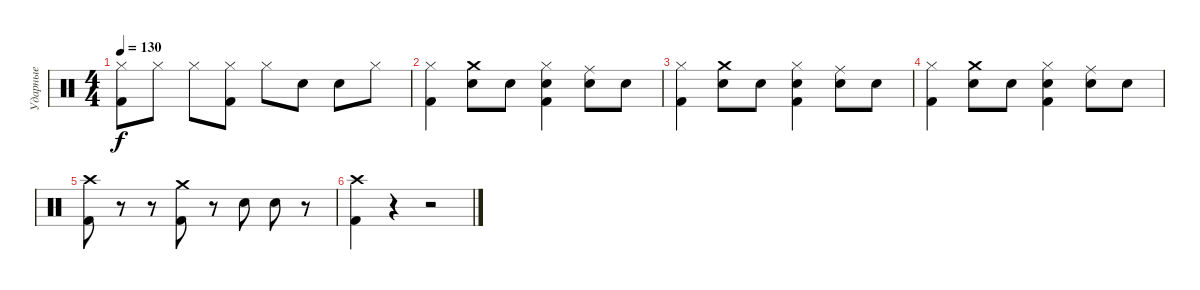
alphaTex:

\track ("Ударные" "Ударные") {instrument percussion}
\staff {score}
\articulation defaults
\ts (4 4)
\tempo 130
\clef neutral
\ks c
("Hi-Hat (closed)" "Kick (hit) 2").8{dy f} "Hi-Hat (closed)".8 "Hi-Hat (closed)".8 ("Hi-Hat (closed)" "Kick (hit) 2").8 "Hi-Hat (closed)".8 "Snare (hit) 2".8 "Snare (hit) 2".8 "Hi-Hat (closed)".8 |
("Hi-Hat (closed)" "Kick (hit) 2").4 ("Crash medium (hit)" "Snare (hit) 2").8 "Snare (hit) 2".8 ("Hi-Hat (closed)" "Snare (hit) 2" "Kick (hit) 2").4 ("Ride (middle)" "Snare (hit) 2").8 "Snare (hit) 2".8 |
("Hi-Hat (closed)" "Kick (hit) 2").4 ("Crash medium (hit)" "Snare (hit) 2").8 "Snare (hit) 2".8 ("Hi-Hat (closed)" "Snare (hit) 2" "Kick (hit) 2").4 ("Ride (middle)" "Snare (hit) 2").8 "Snare (hit) 2".8 |
("Hi-Hat (closed)" "Kick (hit) 2").4 ("Crash medium (hit)" "Snare (hit) 2").8 "Snare (hit) 2".8 ("Hi-Hat (closed)" "Snare (hit) 2" "Kick (hit) 2").4 ("Ride (middle)" "Snare (hit) 2").8 "Snare (hit) 2".8 |
("Crash high (hit)" "Kick (hit) 2").8 r.8 r.8 ("Crash medium (hit)" "Kick (hit) 2").8 r.8 "Snare (hit) 2".8 "Snare (hit) 2".8 r.8 |
("Crash high (hit)" "Kick (hit) 2").4 r.4 r.2
